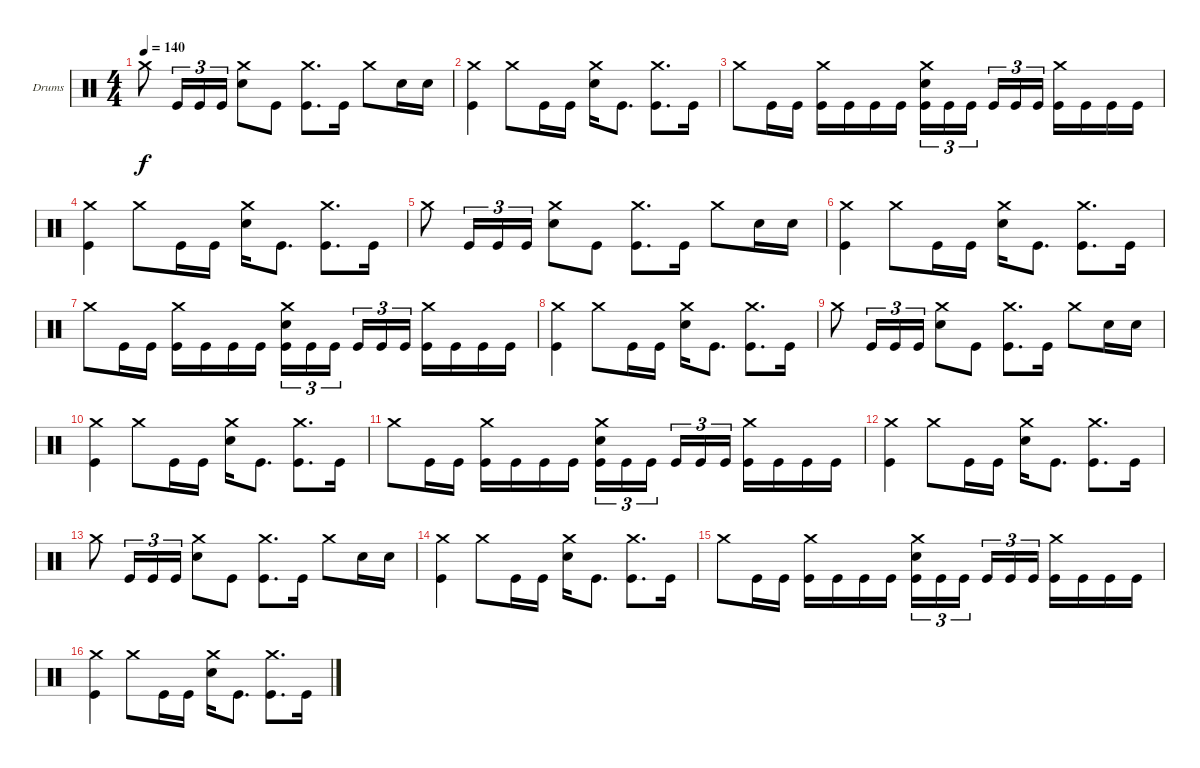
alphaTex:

\defaultSystemsLayout 4
\bracketExtendMode groupsimilarinstruments
\firstSystemTrackNameOrientation horizontal
\otherSystemsTrackNameOrientation horizontal
\track ("Drumkit" "Drums") {instrument percussion}
\staff {score}
\articulation defaults
\ts (4 4)
\tempo 140
\clef neutral
\ks c "Crash medium (hit)".8{dy f} "Kick (hit)".16{tu (3 2)} "Kick (hit)".16{tu (3 2)} "Kick (hit)".16{tu (3 2)}
("Crash medium (hit)" "Snare (hit) 2").8 "Kick (hit)".8 ("Crash medium (hit)" "Kick (hit)").8{d} "Kick (hit)".16 "Crash medium (hit)".8 "Snare (hit) 2".16 "Snare (hit) 2".16 |
("Crash medium (hit)" "Kick (hit)").4 "Crash medium (hit)".8 "Kick (hit)".16 "Kick (hit)".16 ("Crash medium (hit)" "Snare (hit) 2").16 "Kick (hit)".8{d} ("Crash medium (hit)" "Kick (hit)").8{d} "Kick (hit)".16 |
"Crash medium (hit)".8 "Kick (hit)".16 "Kick (hit)".16 ("Crash medium (hit)" "Kick (hit)").16 "Kick (hit)".16 "Kick (hit)".16 "Kick (hit)".16 ("Crash medium (hit)" "Snare (hit) 2" "Kick (hit)").16{tu (3 2)} "Kick (hit)".16{tu (3 2)} "Kick (hit)".16{tu (3 2)} "Kick (hit)".16{tu (3 2)} "Kick (hit)".16{tu (3 2)} "Kick (hit)".16{tu (3 2)} ("Crash medium (hit)" "Kick (hit)").16 "Kick (hit)".16 "Kick (hit)".16 "Kick (hit)".16 |
("Crash medium (hit)" "Kick (hit)").4 "Crash medium (hit)".8 "Kick (hit)".16 "Kick (hit)".16 ("Crash medium (hit)" "Snare (hit) 2").16 "Kick (hit)".8{d} ("Crash medium (hit)" "Kick (hit)").8{d} "Kick (hit)".16 |
"Crash medium (hit)".8 "Kick (hit)".16{tu (3 2)} "Kick (hit)".16{tu (3 2)} "Kick (hit)".16{tu (3 2)} ("Crash medium (hit)" "Snare (hit) 2").8 "Kick (hit)".8 ("Crash medium (hit)" "Kick (hit)").8{d} "Kick (hit)".16 "Crash medium (hit)".8 "Snare (hit) 2".16 "Snare (hit) 2".16 |
("Crash medium (hit)" "Kick (hit)").4 "Crash medium (hit)".8 "Kick (hit)".16 "Kick (hit)".16 ("Crash medium (hit)" "Snare (hit) 2").16 "Kick (hit)".8{d} ("Crash medium (hit)" "Kick (hit)").8{d} "Kick (hit)".16 |
"Crash medium (hit)".8 "Kick (hit)".16 "Kick (hit)".16 ("Crash medium (hit)" "Kick (hit)").16 "Kick (hit)".16 "Kick (hit)".16 "Kick (hit)".16 ("Crash medium (hit)" "Snare (hit) 2" "Kick (hit)").16{tu (3 2)} "Kick (hit)".16{tu (3 2)} "Kick (hit)".16{tu (3 2)} "Kick (hit)".16{tu (3 2)} "Kick (hit)".16{tu (3 2)} "Kick (hit)".16{tu (3 2)} ("Crash medium (hit)" "Kick (hit)").16 "Kick (hit)".16 "Kick (hit)".16 "Kick (hit)".16 |
("Crash medium (hit)" "Kick (hit)").4 "Crash medium (hit)".8 "Kick (hit)".16 "Kick (hit)".16 ("Crash medium (hit)" "Snare (hit) 2").16 "Kick (hit)".8{d} ("Crash medium (hit)" "Kick (hit)").8{d} "Kick (hit)".16 |
"Crash medium (hit)".8 "Kick (hit)".16{tu (3 2)} "Kick (hit)".16{tu (3 2)} "Kick (hit)".16{tu (3 2)} ("Crash medium (hit)" "Snare (hit) 2").8 "Kick (hit)".8 ("Crash medium (hit)" "Kick (hit)").8{d} "Kick (hit)".16 "Crash medium (hit)".8 "Snare (hit) 2".16 "Snare (hit) 2".16 |
("Crash medium (hit)" "Kick (hit)").4 "Crash medium (hit)".8 "Kick (hit)".16 "Kick (hit)".16 ("Crash medium (hit)" "Snare (hit) 2").16 "Kick (hit)".8{d} ("Crash medium (hit)" "Kick (hit)").8{d} "Kick (hit)".16 |
"Crash medium (hit)".8 "Kick (hit)".16 "Kick (hit)".16 ("Crash medium (hit)" "Kick (hit)").16 "Kick (hit)".16 "Kick (hit)".16 "Kick (hit)".16 ("Crash medium (hit)" "Snare (hit) 2" "Kick (hit)").16{tu (3 2)} "Kick (hit)".16{tu (3 2)} "Kick (hit)".16{tu (3 2)} "Kick (hit)".16{tu (3 2)} "Kick (hit)".16{tu (3 2)} "Kick (hit)".16{tu (3 2)} ("Crash medium (hit)" "Kick (hit)").16 "Kick (hit)".16 "Kick (hit)".16 "Kick (hit)".16 |
("Crash medium (hit)" "Kick (hit)").4 "Crash medium (hit)".8 "Kick (hit)".16 "Kick (hit)".16 ("Crash medium (hit)" "Snare (hit) 2").16 "Kick (hit)".8{d} ("Crash medium (hit)" "Kick (hit)").8{d} "Kick (hit)".16 |
"Crash medium (hit)".8 "Kick (hit)".16{tu (3 2)} "Kick (hit)".16{tu (3 2)} "Kick (hit)".16{tu (3 2)} ("Crash medium (hit)" "Snare (hit) 2").8 "Kick (hit)".8 ("Crash medium (hit)" "Kick (hit)").8{d} "Kick (hit)".16 "Crash medium (hit)".8 "Snare (hit) 2".16 "Snare (hit) 2".16 |
("Crash medium (hit)" "Kick (hit)").4 "Crash medium (hit)".8 "Kick (hit)".16 "Kick (hit)".16 ("Crash medium (hit)" "Snare (hit) 2").16 "Kick (hit)".8{d} ("Crash medium (hit)" "Kick (hit)").8{d} "Kick (hit)".16 |
"Crash medium (hit)".8 "Kick (hit)".16 "Kick (hit)".16 ("Crash medium (hit)" "Kick (hit)").16 "Kick (hit)".16 "Kick (hit)".16 "Kick (hit)".16 ("Crash medium (hit)" "Snare (hit) 2" "Kick (hit)").16{tu (3 2)} "Kick (hit)".16{tu (3 2)} "Kick (hit)".16{tu (3 2)} "Kick (hit)".16{tu (3 2)} "Kick (hit)".16{tu (3 2)} "Kick (hit)".16{tu (3 2)} ("Crash medium (hit)" "Kick (hit)").16 "Kick (hit)".16 "Kick (hit)".16 "Kick (hit)".16 |
("Crash medium (hit)" "Kick (hit)").4 "Crash medium (hit)".8 "Kick (hit)".16 "Kick (hit)".16 ("Crash medium (hit)" "Snare (hit) 2").16 "Kick (hit)".8{d} ("Crash medium (hit)" "Kick (hit)").8{d} "Kick (hit)".16
